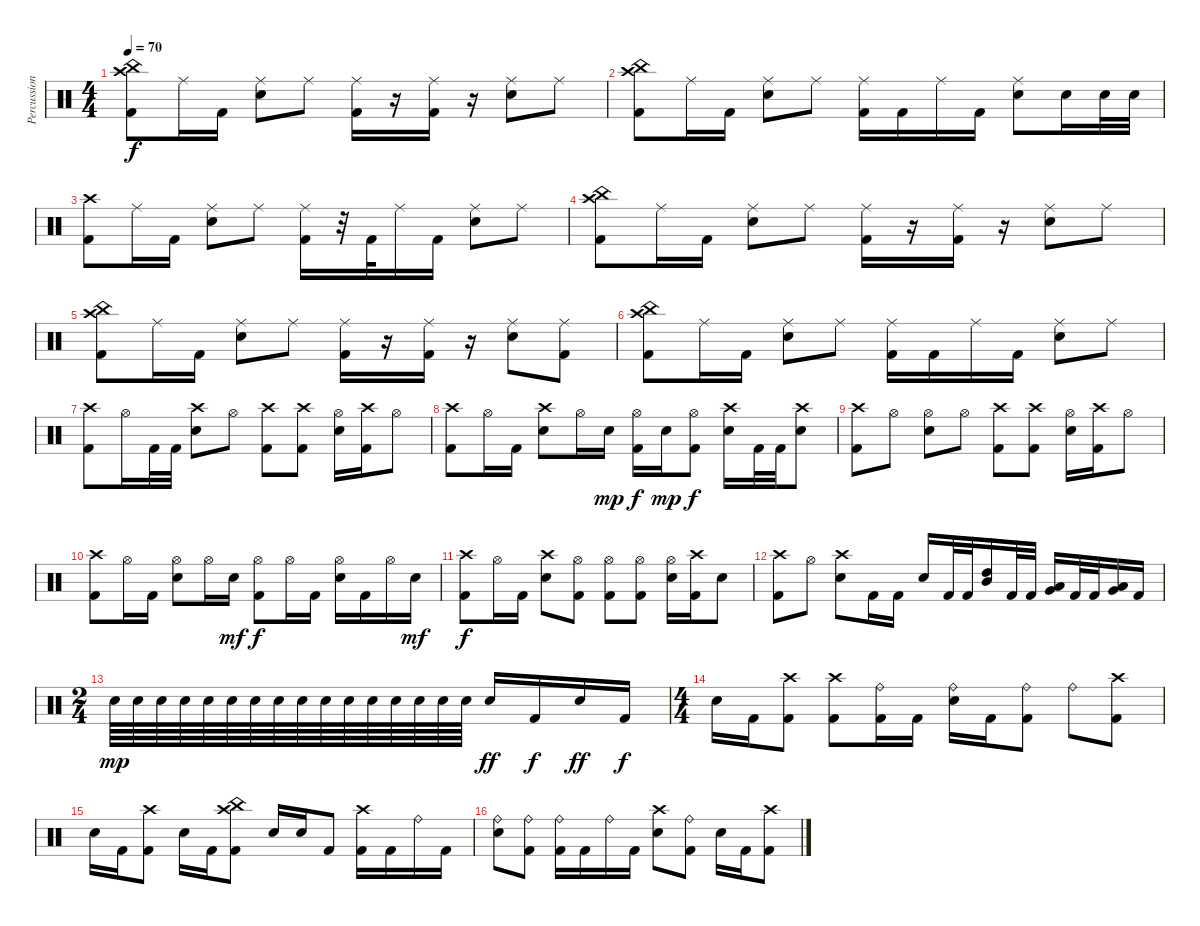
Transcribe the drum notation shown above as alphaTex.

\track ("Percussion" "Percussion") {instrument percussion}
\staff {score}
\articulation defaults
\ts (4 4)
\tempo 70
\clef neutral
\ks c
("Crash high (hit)" "China (hit)" "Kick (hit) 2").8{dy f} "Ride (middle)".16 "Kick (hit) 2".16 ("Ride (middle)" "Snare (hit) 2").8 "Ride (middle)".8 ("Ride (middle)" "Kick (hit) 2").16 r.16 ("Ride (middle)" "Kick (hit) 2").16 r.16 ("Ride (middle)" "Snare (hit) 2").8 "Ride (middle)".8 |
("Crash high (hit)" "China (hit)" "Kick (hit) 2").8 "Ride (middle)".16 "Kick (hit) 2".16 ("Ride (middle)" "Snare (hit) 2").8 "Ride (middle)".8 ("Ride (middle)" "Kick (hit) 2").16 "Kick (hit) 2".16 "Ride (middle)".16 "Kick (hit) 2".16 ("Ride (middle)" "Snare (hit) 2").8 "Snare (hit) 2".16 "Snare (hit) 2".32 "Snare (hit) 2".32 |
("Crash high (hit)" "Kick (hit) 2").8 "Ride (middle)".16 "Kick (hit) 2".16 ("Ride (middle)" "Snare (hit) 2").8 "Ride (middle)".8 ("Ride (middle)" "Kick (hit) 2").16 r.32 "Kick (hit) 2".32 "Ride (middle)".16 "Kick (hit) 2".16 ("Ride (middle)" "Snare (hit) 2").8 "Ride (middle)".8 |
("Crash high (hit)" "China (hit)" "Kick (hit) 2").8 "Ride (middle)".16 "Kick (hit) 2".16 ("Ride (middle)" "Snare (hit) 2").8 "Ride (middle)".8 ("Ride (middle)" "Kick (hit) 2").16 r.16 ("Ride (middle)" "Kick (hit) 2").16 r.16 ("Ride (middle)" "Snare (hit) 2").8 "Ride (middle)".8 |
("Crash high (hit)" "China (hit)" "Kick (hit) 2").8 "Ride (middle)".16 "Kick (hit) 2".16 ("Ride (middle)" "Snare (hit) 2").8 "Ride (middle)".8 ("Ride (middle)" "Kick (hit) 2").16 r.16 ("Ride (middle)" "Kick (hit) 2").16 r.16 ("Ride (middle)" "Snare (hit) 2").8 ("Ride (middle)" "Kick (hit) 2").8 |
("Crash high (hit)" "China (hit)" "Kick (hit) 2").8 "Ride (middle)".16 "Kick (hit) 2".16 ("Ride (middle)" "Snare (hit) 2").8 "Ride (middle)".8 ("Ride (middle)" "Kick (hit) 2").16 "Kick (hit) 2".16 "Ride (middle)".16 "Kick (hit) 2".16 ("Ride (middle)" "Snare (hit) 2").8 "Ride (middle)".8 |
("Crash high (hit)" "Kick (hit) 2").8 "Hi-Hat (open)".16 "Kick (hit) 2".32 "Kick (hit) 2".32 ("Crash high (hit)" "Snare (hit) 2").8 "Hi-Hat (open)".8 ("Crash high (hit)" "Kick (hit) 2").8 ("Crash high (hit)" "Kick (hit) 2").8 ("Hi-Hat (open)" "Snare (hit) 2").16 ("Crash high (hit)" "Kick (hit) 2").16 "Hi-Hat (open)".8 |
("Crash high (hit)" "Kick (hit) 2").8 "Hi-Hat (open)".16 "Kick (hit) 2".16 ("Crash high (hit)" "Snare (hit) 2").8 "Hi-Hat (open)".16 "Snare (hit) 2".16{dy mp} ("Hi-Hat (open)" "Kick (hit) 2").16{dy f} "Snare (hit) 2".16{dy mp} ("Hi-Hat (open)" "Kick (hit) 2").8{dy f} ("Crash high (hit)" "Snare (hit) 2").16 "Kick (hit) 2".32 "Kick (hit) 2".32 ("Crash high (hit)" "Snare (hit) 2").8 |
("Crash high (hit)" "Kick (hit) 2").8 "Hi-Hat (open)".8 ("Hi-Hat (open)" "Snare (hit) 2").8 "Hi-Hat (open)".8 ("Crash high (hit)" "Kick (hit) 2").8 ("Crash high (hit)" "Kick (hit) 2").8 ("Hi-Hat (open)" "Snare (hit) 2").16 ("Crash high (hit)" "Kick (hit) 2").16 "Hi-Hat (open)".8 |
("Crash high (hit)" "Kick (hit) 2").8 "Hi-Hat (open)".16 "Kick (hit) 2".16 ("Hi-Hat (open)" "Snare (hit) 2").8 "Hi-Hat (open)".16 "Snare (hit) 2".16{dy mf} ("Hi-Hat (open)" "Kick (hit) 2").8{dy f} "Hi-Hat (open)".16 "Kick (hit) 2".16 ("Hi-Hat (open)" "Snare (hit) 2").16 "Kick (hit) 2".16 "Hi-Hat (open)".16 "Snare (hit) 2".16{dy mf} |
("Crash high (hit)" "Kick (hit) 2").8{dy f} "Hi-Hat (open)".16 "Kick (hit) 2".16 ("Crash high (hit)" "Snare (hit) 2").8 ("Hi-Hat (open)" "Kick (hit) 2").8 ("Hi-Hat (open)" "Kick (hit) 2").8 ("Hi-Hat (open)" "Kick (hit) 2").8 ("Hi-Hat (open)" "Snare (hit) 2").16 ("Crash high (hit)" "Kick (hit) 2").16 "Snare (hit) 2".8 |
("Crash high (hit)" "Kick (hit) 2").8 "Hi-Hat (open)".8 ("Crash high (hit)" "Snare (hit) 2").8 "Kick (hit) 2".16 "Kick (hit) 2".16 "Snare (hit) 2".16 "Kick (hit) 2".32 "Kick (hit) 2".32 ("High Tom (hit)" "Mid Tom (hit)").16 "Kick (hit) 2".32 "Kick (hit) 2".32 ("Low Tom (hit)" "Very Low Tom (hit)").16 "Kick (hit) 2".32 "Kick (hit) 2".32 ("Very Low Tom (hit)" "Low Floor Tom (hit)").16 "Kick (hit) 2".16 |
\ts (2 4)
"Snare (hit) 2".64{dy mp} "Snare (hit) 2".64 "Snare (hit) 2".64 "Snare (hit) 2".64 "Snare (hit) 2".64 "Snare (hit) 2".64 "Snare (hit) 2".64 "Snare (hit) 2".64 "Snare (hit) 2".64 "Snare (hit) 2".64 "Snare (hit) 2".64 "Snare (hit) 2".64 "Snare (hit) 2".64 "Snare (hit) 2".64 "Snare (hit) 2".64 "Snare (hit) 2".64 "Snare (hit) 2".16{dy ff} "Kick (hit) 2".16{dy f} "Snare (hit) 2".16{dy ff} "Kick (hit) 2".16{dy f} |
\ts (4 4)
"Snare (hit) 2".16 "Kick (hit) 2".16 ("Crash high (hit)" "Kick (hit) 2").8 ("Crash high (hit)" "Kick (hit) 2").8 ("Ride (bell)" "Kick (hit) 2").16 "Kick (hit) 2".16 ("Ride (bell)" "Snare (hit) 2").16 "Kick (hit) 2".16 ("Ride (bell)" "Kick (hit) 2").8 "Ride (bell)".8 ("Crash high (hit)" "Kick (hit) 2").8 |
"Snare (hit) 2".16 "Kick (hit) 2".16 ("Crash high (hit)" "Kick (hit) 2").8 "Snare (hit) 2".16 "Kick (hit) 2".16 ("China (hit)" "Crash high (hit)" "Kick (hit) 2").8 "Snare (hit) 2".16 "Snare (hit) 2".16 "Kick (hit) 2".8 ("Crash high (hit)" "Kick (hit) 2").16 "Kick (hit) 2".16 "Ride (bell)".16 "Kick (hit) 2".16 |
("Ride (bell)" "Snare (hit) 2").8 ("Ride (bell)" "Kick (hit) 2").8 ("Ride (bell)" "Kick (hit) 2").16 "Kick (hit) 2".16 "Ride (bell)".16 "Kick (hit) 2".16 ("Crash high (hit)" "Snare (hit) 2").8 ("Ride (bell)" "Kick (hit) 2").8 "Snare (hit) 2".16 "Kick (hit) 2".16 ("Crash high (hit)" "Kick (hit) 2").8
